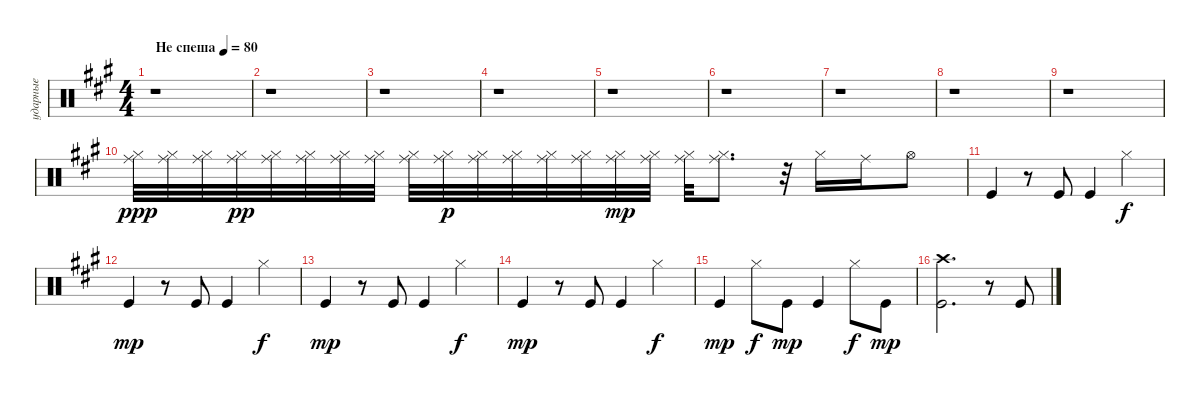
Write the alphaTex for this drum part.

\track ("ударные" "ударные") {instrument percussion}
\staff {score}
\articulation defaults
\ts (4 4)
\tempo (80 "Не спеша")
\clef neutral
\ks f#minor
r.1{dy ppp} |
r.1 |
r.1 |
r.1 |
r.1 |
r.1 |
r.1 |
r.1 |
r.1 |
("Hi-Hat (closed)" "Ride (middle)").32 ("Hi-Hat (closed)" "Ride (middle)").32 ("Hi-Hat (closed)" "Ride (middle)").32 ("Hi-Hat (closed)" "Ride (middle)").32{dy pp} ("Hi-Hat (closed)" "Ride (middle)").32 ("Hi-Hat (closed)" "Ride (middle)").32 ("Ride (middle)" "Hi-Hat (closed)").32 ("Hi-Hat (closed)" "Ride (middle)").32 ("Hi-Hat (closed)" "Ride (middle)").32 ("Hi-Hat (closed)" "Ride (middle)").32{dy p} ("Hi-Hat (closed)" "Ride (middle)").32 ("Hi-Hat (closed)" "Ride (middle)").32 ("Hi-Hat (closed)" "Ride (middle)").32 ("Hi-Hat (closed)" "Ride (middle)").32 ("Ride (middle)" "Hi-Hat (closed)").32{dy mp} ("Hi-Hat (closed)" "Ride (middle)").32 ("Hi-Hat (closed)" "Ride (middle)").32 ("Hi-Hat (closed)" "Ride (middle)").8{d} r.32 "Hi-Hat (closed)".16 "Ride (middle)".16 "Hi-Hat (open)".8 |
"Kick (hit)".4 r.8 "Kick (hit)".8 "Kick (hit)".4 "Hi-Hat (closed)".4{dy f} |
"Kick (hit)".4{dy mp} r.8 "Kick (hit)".8 "Kick (hit)".4 "Hi-Hat (closed)".4{dy f} |
"Kick (hit)".4{dy mp} r.8 "Kick (hit)".8 "Kick (hit)".4 "Hi-Hat (closed)".4{dy f} |
"Kick (hit)".4{dy mp} r.8 "Kick (hit)".8 "Kick (hit)".4 "Hi-Hat (closed)".4{dy f} |
"Kick (hit)".4{dy mp} "Hi-Hat (closed)".8{dy f} "Kick (hit)".8{dy mp} "Kick (hit)".4 "Hi-Hat (closed)".8{dy f} "Kick (hit)".8{dy mp} |
("Kick (hit)" "Crash high (hit)").2{d} r.8 "Kick (hit)".8
